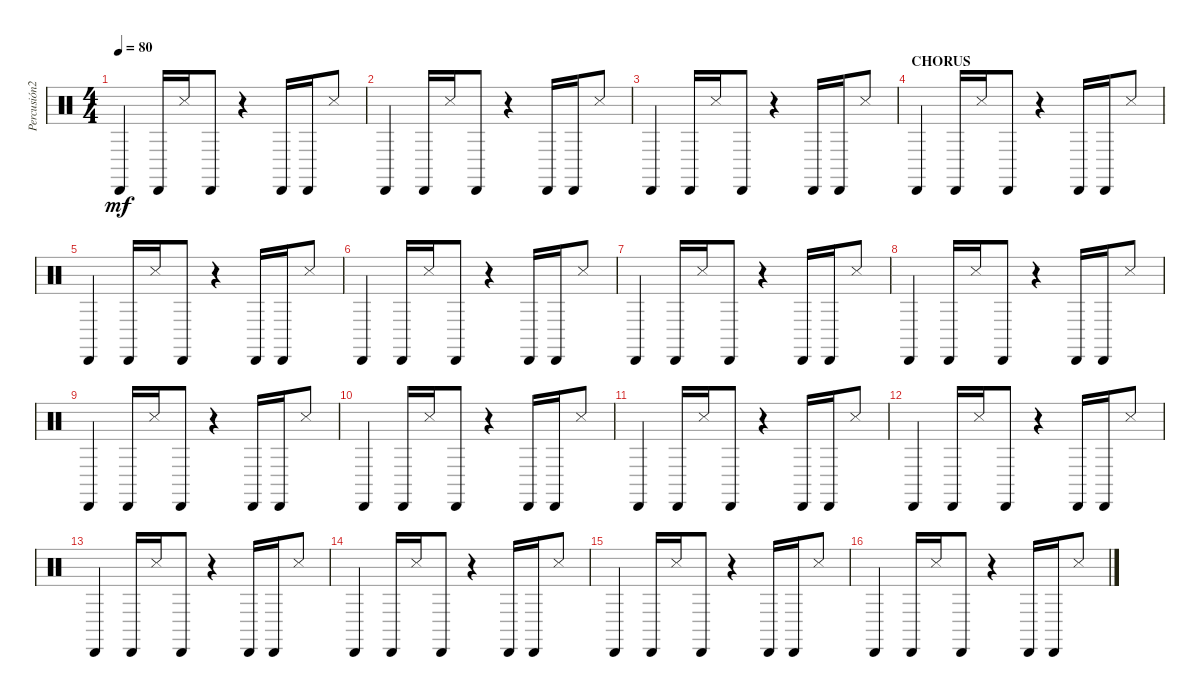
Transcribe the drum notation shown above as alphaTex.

\track ("Percusión2" "Percusión2") {instrument percussion}
\staff {score}
\articulation defaults
\ts (4 4)
\tempo 80
\clef neutral
\ks c "Cabasa (hit)".4{dy mf} "Cabasa (hit)".16 "Snare (side stick) 3".16 "Cabasa (hit)".8
r.4 "Cabasa (hit)".16 "Cabasa (hit)".16 "Snare (side stick) 3".8 |
"Cabasa (hit)".4 "Cabasa (hit)".16 "Snare (side stick) 3".16 "Cabasa (hit)".8 r.4 "Cabasa (hit)".16 "Cabasa (hit)".16 "Snare (side stick) 3".8 |
"Cabasa (hit)".4 "Cabasa (hit)".16 "Snare (side stick) 3".16 "Cabasa (hit)".8 r.4 "Cabasa (hit)".16 "Cabasa (hit)".16 "Snare (side stick) 3".8 |
\section ("" "CHORUS")
"Cabasa (hit)".4 "Cabasa (hit)".16 "Snare (side stick) 3".16 "Cabasa (hit)".8 r.4 "Cabasa (hit)".16 "Cabasa (hit)".16 "Snare (side stick) 3".8 |
"Cabasa (hit)".4 "Cabasa (hit)".16 "Snare (side stick) 3".16 "Cabasa (hit)".8 r.4 "Cabasa (hit)".16 "Cabasa (hit)".16 "Snare (side stick) 3".8 |
"Cabasa (hit)".4 "Cabasa (hit)".16 "Snare (side stick) 3".16 "Cabasa (hit)".8 r.4 "Cabasa (hit)".16 "Cabasa (hit)".16 "Snare (side stick) 3".8 |
"Cabasa (hit)".4 "Cabasa (hit)".16 "Snare (side stick) 3".16 "Cabasa (hit)".8 r.4 "Cabasa (hit)".16 "Cabasa (hit)".16 "Snare (side stick) 3".8 |
"Cabasa (hit)".4 "Cabasa (hit)".16 "Snare (side stick) 3".16 "Cabasa (hit)".8 r.4 "Cabasa (hit)".16 "Cabasa (hit)".16 "Snare (side stick) 3".8 |
"Cabasa (hit)".4 "Cabasa (hit)".16 "Snare (side stick) 3".16 "Cabasa (hit)".8 r.4 "Cabasa (hit)".16 "Cabasa (hit)".16 "Snare (side stick) 3".8 |
"Cabasa (hit)".4 "Cabasa (hit)".16 "Snare (side stick) 3".16 "Cabasa (hit)".8 r.4 "Cabasa (hit)".16 "Cabasa (hit)".16 "Snare (side stick) 3".8 |
"Cabasa (hit)".4 "Cabasa (hit)".16 "Snare (side stick) 3".16 "Cabasa (hit)".8 r.4 "Cabasa (hit)".16 "Cabasa (hit)".16 "Snare (side stick) 3".8 |
"Cabasa (hit)".4 "Cabasa (hit)".16 "Snare (side stick) 3".16 "Cabasa (hit)".8 r.4 "Cabasa (hit)".16 "Cabasa (hit)".16 "Snare (side stick) 3".8 |
"Cabasa (hit)".4 "Cabasa (hit)".16 "Snare (side stick) 3".16 "Cabasa (hit)".8 r.4 "Cabasa (hit)".16 "Cabasa (hit)".16 "Snare (side stick) 3".8 |
"Cabasa (hit)".4 "Cabasa (hit)".16 "Snare (side stick) 3".16 "Cabasa (hit)".8 r.4 "Cabasa (hit)".16 "Cabasa (hit)".16 "Snare (side stick) 3".8 |
"Cabasa (hit)".4 "Cabasa (hit)".16 "Snare (side stick) 3".16 "Cabasa (hit)".8 r.4 "Cabasa (hit)".16 "Cabasa (hit)".16 "Snare (side stick) 3".8 |
"Cabasa (hit)".4 "Cabasa (hit)".16 "Snare (side stick) 3".16 "Cabasa (hit)".8 r.4 "Cabasa (hit)".16 "Cabasa (hit)".16 "Snare (side stick) 3".8
